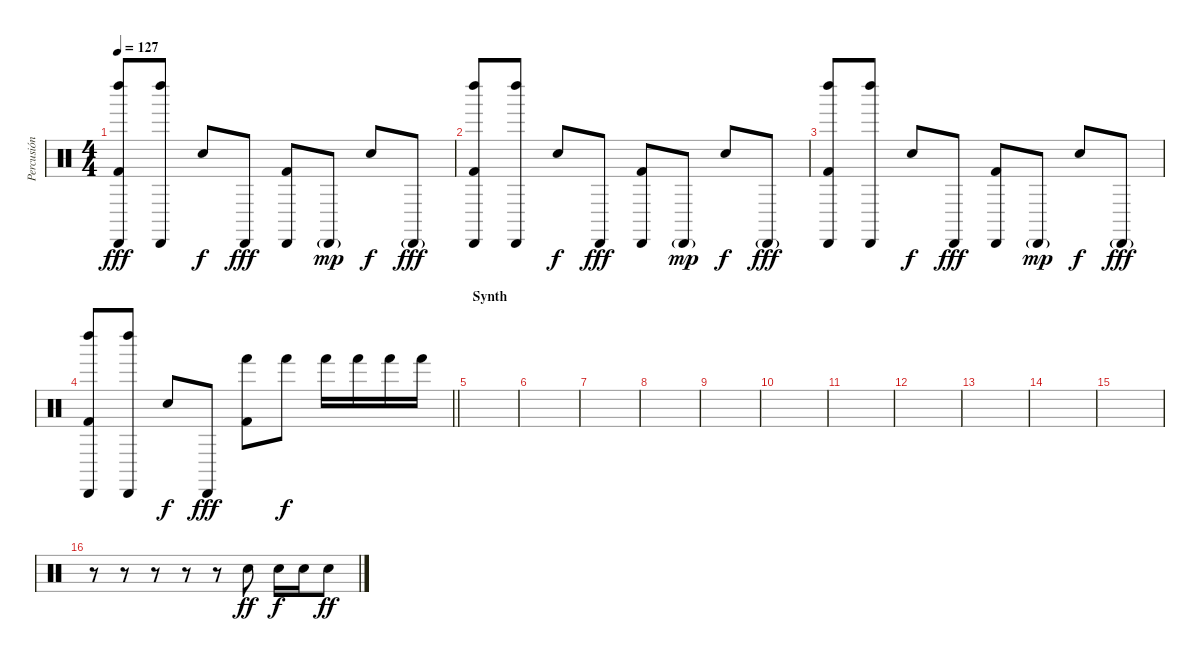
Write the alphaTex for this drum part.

\track ("Percusión" "Percusión") {instrument percussion}
\staff {score}
\articulation defaults
\ts (4 4)
\tempo 127
\clef neutral
\ks c
("Left Maraca (hit)" "Cabasa (hit)" "Kick (hit) 2").8{dy fff} ("Left Maraca (hit)" "Cabasa (hit)").8 "Electric Snare (hit)".8{dy f} "Cabasa (hit)".8{dy fff} ("Cabasa (hit)" "Kick (hit) 2").8 "Cabasa (hit)"{g}.8{dy mp} "Electric Snare (hit)".8{dy f} "Cabasa (hit)"{g}.8{dy fff} |
("Left Maraca (hit)" "Cabasa (hit)" "Kick (hit) 2").8 ("Left Maraca (hit)" "Cabasa (hit)").8 "Electric Snare (hit)".8{dy f} "Cabasa (hit)".8{dy fff} ("Cabasa (hit)" "Kick (hit) 2").8 "Cabasa (hit)"{g}.8{dy mp} "Electric Snare (hit)".8{dy f} "Cabasa (hit)"{g}.8{dy fff} |
("Left Maraca (hit)" "Cabasa (hit)" "Kick (hit) 2").8 ("Left Maraca (hit)" "Cabasa (hit)").8 "Electric Snare (hit)".8{dy f} "Cabasa (hit)".8{dy fff} ("Cabasa (hit)" "Kick (hit) 2").8 "Cabasa (hit)"{g}.8{dy mp} "Electric Snare (hit)".8{dy f} "Cabasa (hit)"{g}.8{dy fff} |
\barLineRight lightlight
("Left Maraca (hit)" "Cabasa (hit)" "Kick (hit) 2").8 ("Left Maraca (hit)" "Cabasa (hit)").8 "Electric Snare (hit)".8{dy f} "Cabasa (hit)".8{dy fff} ("Hand (hit)" "Kick (hit) 2").8 "Hand (hit)".8{dy f} "Hand (hit)".16 "Hand (hit)".16 "Hand (hit)".16 "Hand (hit)".16 |
\section ("" "Synth")
|
|
|
|
|
|
|
|
|
|
|
r.8 r.8 r.8 r.8 r.8 "Electric Snare (hit)".8{dy ff} "Electric Snare (hit)".16{dy f} "Electric Snare (hit)".16 "Electric Snare (hit)".8{dy ff}
